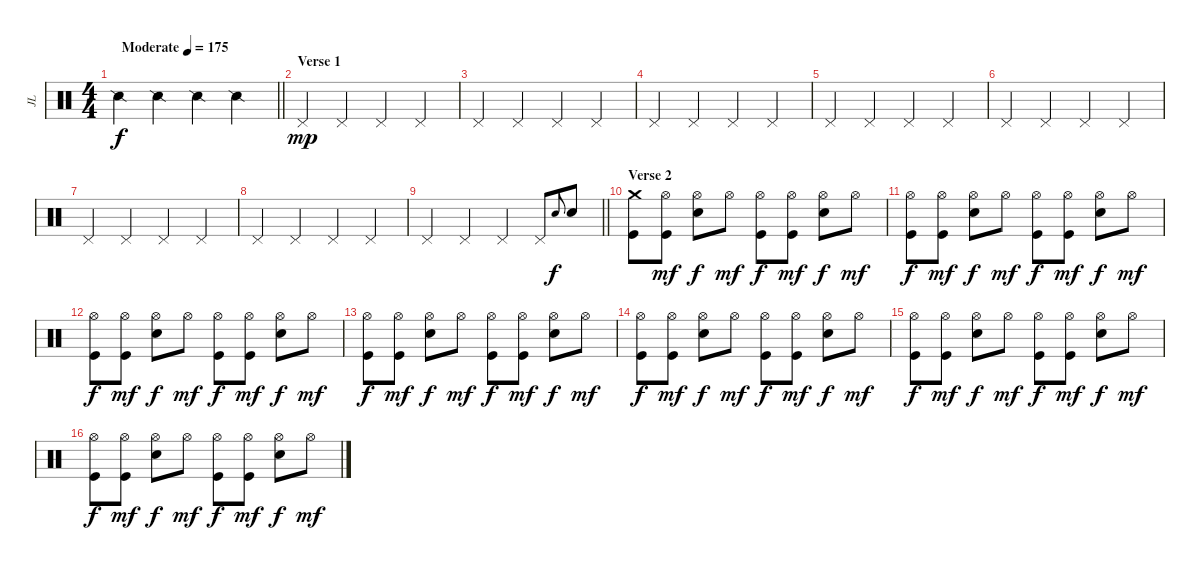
\track ("JL" "JL") {instrument percussion}
\staff {score}
\articulation defaults
\ts (4 4)
\tempo (175 "Moderate")
\clef neutral
\barLineRight lightlight
\ks c "Snare (side stick) 2".4{dy f} "Snare (side stick) 2".4 "Snare (side stick) 2".4 "Snare (side stick) 2".4
|
\section ("" "Verse 1")
"Pedal Hi-Hat (hit)".4{dy mp} "Pedal Hi-Hat (hit)".4 "Pedal Hi-Hat (hit)".4 "Pedal Hi-Hat (hit)".4 |
"Pedal Hi-Hat (hit)".4 "Pedal Hi-Hat (hit)".4 "Pedal Hi-Hat (hit)".4 "Pedal Hi-Hat (hit)".4 |
"Pedal Hi-Hat (hit)".4 "Pedal Hi-Hat (hit)".4 "Pedal Hi-Hat (hit)".4 "Pedal Hi-Hat (hit)".4 |
"Pedal Hi-Hat (hit)".4 "Pedal Hi-Hat (hit)".4 "Pedal Hi-Hat (hit)".4 "Pedal Hi-Hat (hit)".4 |
"Pedal Hi-Hat (hit)".4 "Pedal Hi-Hat (hit)".4 "Pedal Hi-Hat (hit)".4 "Pedal Hi-Hat (hit)".4 |
"Pedal Hi-Hat (hit)".4 "Pedal Hi-Hat (hit)".4 "Pedal Hi-Hat (hit)".4 "Pedal Hi-Hat (hit)".4 |
"Pedal Hi-Hat (hit)".4 "Pedal Hi-Hat (hit)".4 "Pedal Hi-Hat (hit)".4 "Pedal Hi-Hat (hit)".4 |
\barLineRight lightlight "Pedal Hi-Hat (hit)".4 "Pedal Hi-Hat (hit)".4 "Pedal Hi-Hat (hit)".4 "Pedal Hi-Hat (hit)".8 "Electric Snare (hit)".8{gr onbeat dy f} "Electric Snare (hit)".8
|
\section ("" "Verse 2")
("Crash medium (hit)" "Kick (hit)").8 ("Hi-Hat (open)" "Kick (hit)").8{dy mf} ("Hi-Hat (open)" "Electric Snare (hit)").8{dy f} "Hi-Hat (open)".8{dy mf} ("Hi-Hat (open)" "Kick (hit)").8{dy f} ("Hi-Hat (open)" "Kick (hit)").8{dy mf} ("Hi-Hat (open)" "Electric Snare (hit)").8{dy f} "Hi-Hat (open)".8{dy mf} |
("Hi-Hat (open)" "Kick (hit)").8{dy f} ("Hi-Hat (open)" "Kick (hit)").8{dy mf} ("Hi-Hat (open)" "Electric Snare (hit)").8{dy f} "Hi-Hat (open)".8{dy mf} ("Hi-Hat (open)" "Kick (hit)").8{dy f} ("Hi-Hat (open)" "Kick (hit)").8{dy mf} ("Hi-Hat (open)" "Electric Snare (hit)").8{dy f} "Hi-Hat (open)".8{dy mf} |
("Hi-Hat (open)" "Kick (hit)").8{dy f} ("Hi-Hat (open)" "Kick (hit)").8{dy mf} ("Hi-Hat (open)" "Electric Snare (hit)").8{dy f} "Hi-Hat (open)".8{dy mf} ("Hi-Hat (open)" "Kick (hit)").8{dy f} ("Hi-Hat (open)" "Kick (hit)").8{dy mf} ("Hi-Hat (open)" "Electric Snare (hit)").8{dy f} "Hi-Hat (open)".8{dy mf} |
("Hi-Hat (open)" "Kick (hit)").8{dy f} ("Hi-Hat (open)" "Kick (hit)").8{dy mf} ("Hi-Hat (open)" "Electric Snare (hit)").8{dy f} "Hi-Hat (open)".8{dy mf} ("Hi-Hat (open)" "Kick (hit)").8{dy f} ("Hi-Hat (open)" "Kick (hit)").8{dy mf} ("Hi-Hat (open)" "Electric Snare (hit)").8{dy f} "Hi-Hat (open)".8{dy mf} |
("Hi-Hat (open)" "Kick (hit)").8{dy f} ("Hi-Hat (open)" "Kick (hit)").8{dy mf} ("Hi-Hat (open)" "Electric Snare (hit)").8{dy f} "Hi-Hat (open)".8{dy mf} ("Hi-Hat (open)" "Kick (hit)").8{dy f} ("Hi-Hat (open)" "Kick (hit)").8{dy mf} ("Hi-Hat (open)" "Electric Snare (hit)").8{dy f} "Hi-Hat (open)".8{dy mf} |
("Hi-Hat (open)" "Kick (hit)").8{dy f} ("Hi-Hat (open)" "Kick (hit)").8{dy mf} ("Hi-Hat (open)" "Electric Snare (hit)").8{dy f} "Hi-Hat (open)".8{dy mf} ("Hi-Hat (open)" "Kick (hit)").8{dy f} ("Hi-Hat (open)" "Kick (hit)").8{dy mf} ("Hi-Hat (open)" "Electric Snare (hit)").8{dy f} "Hi-Hat (open)".8{dy mf} |
("Hi-Hat (open)" "Kick (hit)").8{dy f} ("Hi-Hat (open)" "Kick (hit)").8{dy mf} ("Hi-Hat (open)" "Electric Snare (hit)").8{dy f} "Hi-Hat (open)".8{dy mf} ("Hi-Hat (open)" "Kick (hit)").8{dy f} ("Hi-Hat (open)" "Kick (hit)").8{dy mf} ("Hi-Hat (open)" "Electric Snare (hit)").8{dy f} "Hi-Hat (open)".8{dy mf}
